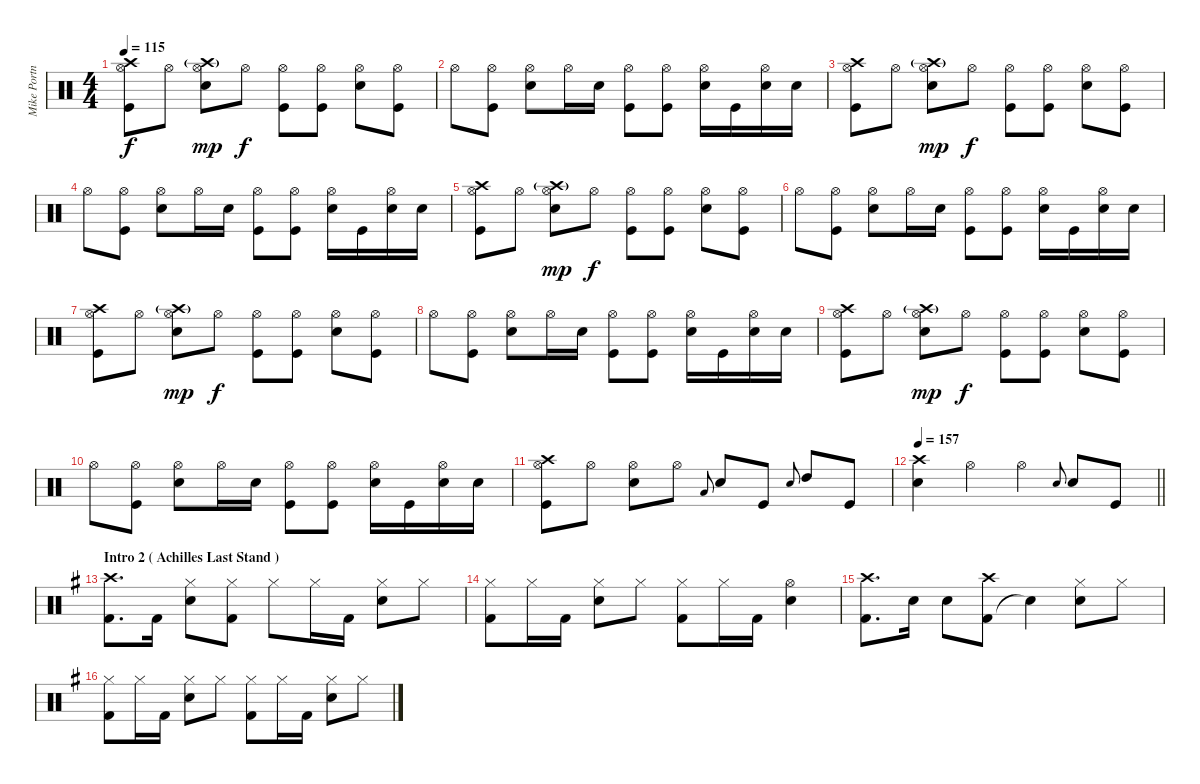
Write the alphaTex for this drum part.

\track ("Mike Portnoy" "Mike Portn") {instrument percussion}
\staff {score}
\articulation defaults
\ts (4 4)
\tempo 115
\clef neutral
\ks c
("Kick (hit)" "Hi-Hat (open)" "Crash high (hit)").8{dy f} "Hi-Hat (open)".8 ("Snare (hit) 2" "Hi-Hat (open)" "Crash high (hit)"{g}).8{dy mp} "Hi-Hat (open)".8{dy f} ("Kick (hit)" "Hi-Hat (open)").8 ("Kick (hit)" "Hi-Hat (open)").8 ("Snare (hit) 2" "Hi-Hat (open)").8 ("Kick (hit)" "Hi-Hat (open)").8 |
"Hi-Hat (open)".8 ("Kick (hit)" "Hi-Hat (open)").8 ("Snare (hit) 2" "Hi-Hat (open)").8 "Hi-Hat (open)".16 "Snare (hit) 2".16 ("Kick (hit)" "Hi-Hat (open)").8 ("Kick (hit)" "Hi-Hat (open)").8 ("Snare (hit) 2" "Hi-Hat (open)").16 "Kick (hit)".16 ("Snare (hit) 2" "Hi-Hat (open)").16 "Snare (hit) 2".16 |
("Kick (hit)" "Hi-Hat (open)" "Crash high (hit)").8 "Hi-Hat (open)".8 ("Snare (hit) 2" "Hi-Hat (open)" "Crash high (hit)"{g}).8{dy mp} "Hi-Hat (open)".8{dy f} ("Kick (hit)" "Hi-Hat (open)").8 ("Kick (hit)" "Hi-Hat (open)").8 ("Snare (hit) 2" "Hi-Hat (open)").8 ("Kick (hit)" "Hi-Hat (open)").8 |
"Hi-Hat (open)".8 ("Kick (hit)" "Hi-Hat (open)").8 ("Snare (hit) 2" "Hi-Hat (open)").8 "Hi-Hat (open)".16 "Snare (hit) 2".16 ("Kick (hit)" "Hi-Hat (open)").8 ("Kick (hit)" "Hi-Hat (open)").8 ("Snare (hit) 2" "Hi-Hat (open)").16 "Kick (hit)".16 ("Snare (hit) 2" "Hi-Hat (open)").16 "Snare (hit) 2".16 |
("Kick (hit)" "Hi-Hat (open)" "Crash high (hit)").8 "Hi-Hat (open)".8 ("Snare (hit) 2" "Hi-Hat (open)" "Crash high (hit)"{g}).8{dy mp} "Hi-Hat (open)".8{dy f} ("Kick (hit)" "Hi-Hat (open)").8 ("Kick (hit)" "Hi-Hat (open)").8 ("Snare (hit) 2" "Hi-Hat (open)").8 ("Kick (hit)" "Hi-Hat (open)").8 |
"Hi-Hat (open)".8 ("Kick (hit)" "Hi-Hat (open)").8 ("Snare (hit) 2" "Hi-Hat (open)").8 "Hi-Hat (open)".16 "Snare (hit) 2".16 ("Kick (hit)" "Hi-Hat (open)").8 ("Kick (hit)" "Hi-Hat (open)").8 ("Snare (hit) 2" "Hi-Hat (open)").16 "Kick (hit)".16 ("Snare (hit) 2" "Hi-Hat (open)").16 "Snare (hit) 2".16 |
("Kick (hit)" "Hi-Hat (open)" "Crash high (hit)").8 "Hi-Hat (open)".8 ("Snare (hit) 2" "Hi-Hat (open)" "Crash high (hit)"{g}).8{dy mp} "Hi-Hat (open)".8{dy f} ("Kick (hit)" "Hi-Hat (open)").8 ("Kick (hit)" "Hi-Hat (open)").8 ("Snare (hit) 2" "Hi-Hat (open)").8 ("Kick (hit)" "Hi-Hat (open)").8 |
"Hi-Hat (open)".8 ("Kick (hit)" "Hi-Hat (open)").8 ("Snare (hit) 2" "Hi-Hat (open)").8 "Hi-Hat (open)".16 "Snare (hit) 2".16 ("Kick (hit)" "Hi-Hat (open)").8 ("Kick (hit)" "Hi-Hat (open)").8 ("Snare (hit) 2" "Hi-Hat (open)").16 "Kick (hit)".16 ("Snare (hit) 2" "Hi-Hat (open)").16 "Snare (hit) 2".16 |
("Kick (hit)" "Hi-Hat (open)" "Crash high (hit)").8 "Hi-Hat (open)".8 ("Snare (hit) 2" "Hi-Hat (open)" "Crash high (hit)"{g}).8{dy mp} "Hi-Hat (open)".8{dy f} ("Kick (hit)" "Hi-Hat (open)").8 ("Kick (hit)" "Hi-Hat (open)").8 ("Snare (hit) 2" "Hi-Hat (open)").8 ("Kick (hit)" "Hi-Hat (open)").8 |
"Hi-Hat (open)".8 ("Kick (hit)" "Hi-Hat (open)").8 ("Snare (hit) 2" "Hi-Hat (open)").8 "Hi-Hat (open)".16 "Snare (hit) 2".16 ("Kick (hit)" "Hi-Hat (open)").8 ("Kick (hit)" "Hi-Hat (open)").8 ("Snare (hit) 2" "Hi-Hat (open)").16 "Kick (hit)".16 ("Snare (hit) 2" "Hi-Hat (open)").16 "Snare (hit) 2".16 |
("Kick (hit)" "Hi-Hat (open)" "Crash high (hit)").8 "Hi-Hat (open)".8 ("Snare (hit) 2" "Hi-Hat (open)").8 "Hi-Hat (open)".8 "Low Tom (hit)".8{gr onbeat} "Snare (hit) 2".8 "Kick (hit)".8 "Snare (hit) 2".8{gr onbeat} "High Tom (hit)".8 "Kick (hit)".8 |
\tempo 157
\barLineRight lightlight
("Snare (hit) 2" "Crash high (hit)").4 "Hi-Hat (open)".4 "Hi-Hat (open)".4 "Snare (hit) 2".8{gr onbeat} "Snare (hit) 2".8 "Kick (hit)".8 |
\section ("" "Intro 2 ( Achilles Last Stand )")
\ks g
("Kick (hit) 2" "Crash high (hit)").8{d} "Kick (hit) 2".16 ("Snare (hit) 2" "Hi-Hat (closed)").8 ("Kick (hit) 2" "Hi-Hat (closed)").8 "Hi-Hat (closed)".8 "Hi-Hat (closed)".16 "Kick (hit) 2".16 ("Snare (hit) 2" "Hi-Hat (closed)").8 "Hi-Hat (closed)".8 |
("Kick (hit) 2" "Hi-Hat (closed)").8 "Hi-Hat (closed)".16 "Kick (hit) 2".16 ("Snare (hit) 2" "Hi-Hat (closed)").8 "Hi-Hat (closed)".8 ("Kick (hit) 2" "Hi-Hat (closed)").8 "Hi-Hat (closed)".16 "Kick (hit) 2".16 ("Snare (hit) 2" "Hi-Hat (open)").4 |
("Kick (hit) 2" "Crash high (hit)").8{d} "Snare (hit) 2".16 "Snare (hit) 2".8 ("Kick (hit) 2" "Crash high (hit)").8 "Snare (hit)"{t}.4 ("Snare (hit) 2" "Hi-Hat (closed)").8 "Hi-Hat (closed)".8 |
("Kick (hit) 2" "Hi-Hat (closed)").8 "Hi-Hat (closed)".16 "Kick (hit) 2".16 ("Snare (hit) 2" "Hi-Hat (closed)").8 "Hi-Hat (closed)".8 ("Kick (hit) 2" "Hi-Hat (closed)").8 "Hi-Hat (closed)".16 "Kick (hit) 2".16 ("Snare (hit) 2" "Hi-Hat (closed)").8 "Hi-Hat (closed)".8
